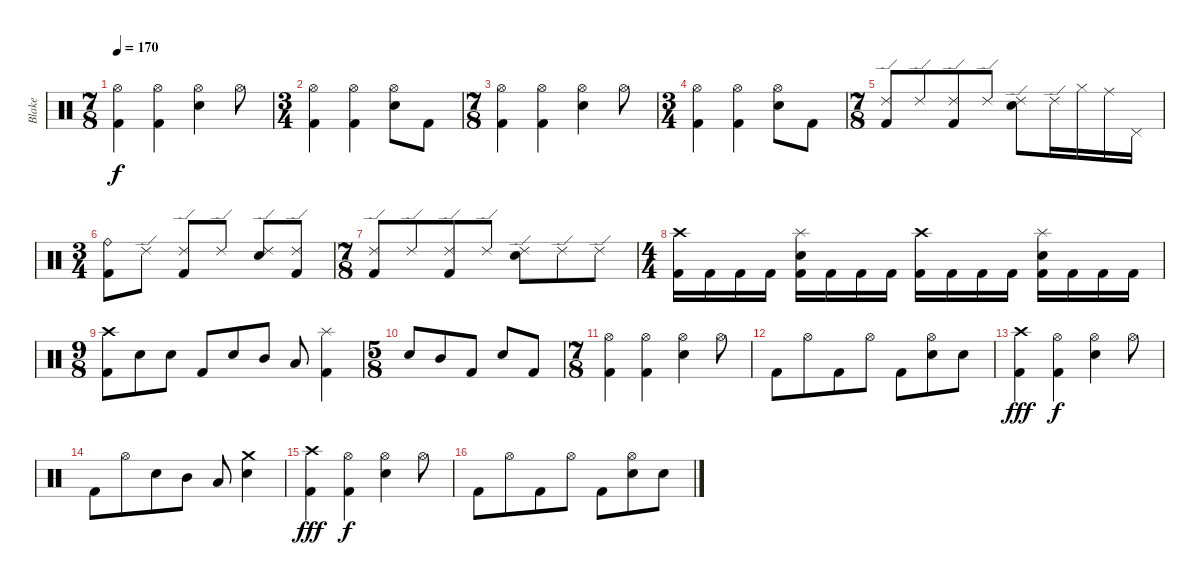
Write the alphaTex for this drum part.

\track ("Blake" "Blake") {instrument percussion}
\staff {score}
\articulation defaults
\ts (7 8)
\tempo 170
\clef neutral
\ks c
("Hi-Hat (open)" "Kick (hit) 2").4{dy f} ("Hi-Hat (open)" "Kick (hit) 2").4 ("Hi-Hat (open)" "Snare (hit) 2").4 "Hi-Hat (open)".8 |
\ts (3 4)
("Hi-Hat (open)" "Kick (hit) 2").4 ("Hi-Hat (open)" "Kick (hit) 2").4 ("Hi-Hat (open)" "Snare (hit) 2").8 "Kick (hit) 2".8 |
\ts (7 8)
("Hi-Hat (open)" "Kick (hit) 2").4 ("Hi-Hat (open)" "Kick (hit) 2").4 ("Hi-Hat (open)" "Snare (hit) 2").4 "Hi-Hat (open)".8 |
\ts (3 4)
("Hi-Hat (open)" "Kick (hit) 2").4 ("Hi-Hat (open)" "Kick (hit) 2").4 ("Hi-Hat (open)" "Snare (hit) 2").8 "Kick (hit) 2".8 |
\ts (7 8)
("Ride (edge) 2" "Kick (hit) 2").8 "Ride (edge) 2".8 ("Ride (edge) 2" "Kick (hit) 2").8 "Ride (edge) 2".8 ("Ride (edge) 2" "Snare (hit) 2").8 "Ride (edge) 2".16 "Hi-Hat (closed)".16 "Ride (middle)".16 "Pedal Hi-Hat (hit)".16 |
\ts (3 4)
("Ride (bell)" "Kick (hit) 2").8 "Ride (edge) 2".8 ("Ride (edge) 2" "Kick (hit) 2").8 "Ride (edge) 2".8 ("Ride (edge) 2" "Snare (hit) 2").8 ("Ride (edge) 2" "Kick (hit) 2").8 |
\ts (7 8)
("Ride (edge) 2" "Kick (hit) 2").8 "Ride (edge) 2".8 ("Ride (edge) 2" "Kick (hit) 2").8 "Ride (edge) 2".8 ("Ride (edge) 2" "Snare (hit) 2").8 "Ride (edge) 2".8 "Ride (edge) 2".8 |
\ts (4 4)
("Crash high (hit)" "Kick (hit) 2").16 "Kick (hit) 2".16 "Kick (hit) 2".16 "Kick (hit) 2".16 ("Splash (hit)" "Snare (hit) 2" "Kick (hit) 2").16 "Kick (hit) 2".16 "Kick (hit) 2".16 "Kick (hit) 2".16 ("Crash high (hit)" "Kick (hit) 2").16 "Kick (hit) 2".16 "Kick (hit) 2".16 "Kick (hit) 2".16 ("Splash (hit)" "Snare (hit) 2" "Kick (hit) 2").16 "Kick (hit) 2".16 "Kick (hit) 2".16 "Kick (hit) 2".16 |
\ts (9 8)
("Crash high (hit)" "Kick (hit) 2").8 "Snare (hit) 2".8 "Snare (hit) 2".8 "Kick (hit) 2".8 "Snare (hit) 2".8 "Mid Tom (hit)".8 "Low Tom (hit)".8 ("Splash (hit)" "Kick (hit) 2").4 |
\ts (5 8)
"Snare (hit) 2".8 "Mid Tom (hit)".8 "Kick (hit) 2".8 "Snare (hit) 2".8 "Kick (hit) 2".8 |
\ts (7 8)
("Hi-Hat (open)" "Kick (hit) 2").4 ("Hi-Hat (open)" "Kick (hit) 2").4 ("Hi-Hat (open)" "Snare (hit) 2").4 "Hi-Hat (open)".8 |
"Kick (hit) 2".8 "Hi-Hat (open)".8 "Kick (hit) 2".8 "Hi-Hat (open)".8 "Kick (hit) 2".8 ("Hi-Hat (open)" "Snare (hit) 2").8 "Snare (hit) 2".8 |
("Crash high (hit)" "Kick (hit) 2").4{dy fff} ("Hi-Hat (open)" "Kick (hit) 2").4{dy f} ("Hi-Hat (open)" "Snare (hit) 2").4 "Hi-Hat (open)".8 |
"Kick (hit) 2".8 "Hi-Hat (open)".8 "Snare (hit) 2".8 "Mid Tom (hit)".8 "Low Tom (hit)".8 ("Crash medium (hit)" "Snare (hit) 2").4 |
("Crash high (hit)" "Kick (hit) 2").4{dy fff} ("Hi-Hat (open)" "Kick (hit) 2").4{dy f} ("Hi-Hat (open)" "Snare (hit) 2").4 "Hi-Hat (open)".8 |
"Kick (hit) 2".8 "Hi-Hat (open)".8 "Kick (hit) 2".8 "Hi-Hat (open)".8 "Kick (hit) 2".8 ("Hi-Hat (open)" "Snare (hit) 2").8 "Snare (hit) 2".8
